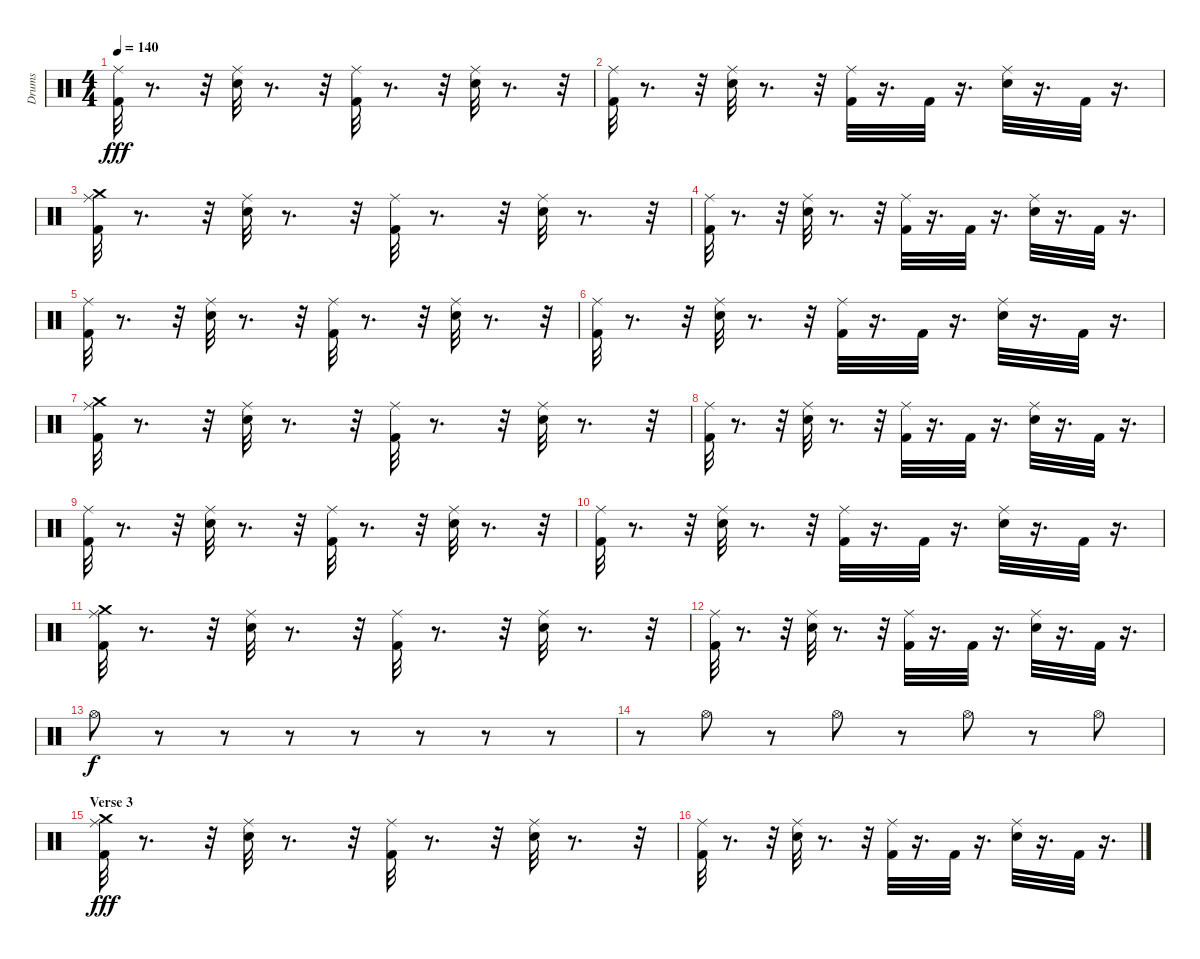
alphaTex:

\track ("Drums" "Drums") {instrument percussion}
\staff {score}
\articulation defaults
\ts (4 4)
\tempo 140
\clef neutral
\ks c
("Kick (hit) 2" "Ride (middle)").32{dy fff} r.8{d} r.32 ("Ride (middle)" "Snare (hit) 2").32 r.8{d} r.32 ("Kick (hit) 2" "Ride (middle)").32 r.8{d} r.32 ("Ride (middle)" "Snare (hit) 2").32 r.8{d} r.32 |
("Kick (hit) 2" "Ride (middle)").32 r.8{d} r.32 ("Ride (middle)" "Snare (hit) 2").32 r.8{d} r.32 ("Kick (hit) 2" "Ride (middle)").32 r.16{d} "Kick (hit) 2".32 r.16{d} ("Ride (middle)" "Snare (hit) 2").32 r.16{d} "Kick (hit) 2".32 r.16{d} |
("Crash medium (hit)" "Kick (hit) 2" "Ride (middle)").32 r.8{d} r.32 ("Ride (middle)" "Snare (hit) 2").32 r.8{d} r.32 ("Kick (hit) 2" "Ride (middle)").32 r.8{d} r.32 ("Ride (middle)" "Snare (hit) 2").32 r.8{d} r.32 |
("Kick (hit) 2" "Ride (middle)").32 r.8{d} r.32 ("Ride (middle)" "Snare (hit) 2").32 r.8{d} r.32 ("Kick (hit) 2" "Ride (middle)").32 r.16{d} "Kick (hit) 2".32 r.16{d} ("Ride (middle)" "Snare (hit) 2").32 r.16{d} "Kick (hit) 2".32 r.16{d} |
("Kick (hit) 2" "Ride (middle)").32 r.8{d} r.32 ("Ride (middle)" "Snare (hit) 2").32 r.8{d} r.32 ("Kick (hit) 2" "Ride (middle)").32 r.8{d} r.32 ("Ride (middle)" "Snare (hit) 2").32 r.8{d} r.32 |
("Kick (hit) 2" "Ride (middle)").32 r.8{d} r.32 ("Ride (middle)" "Snare (hit) 2").32 r.8{d} r.32 ("Kick (hit) 2" "Ride (middle)").32 r.16{d} "Kick (hit) 2".32 r.16{d} ("Ride (middle)" "Snare (hit) 2").32 r.16{d} "Kick (hit) 2".32 r.16{d} |
("Crash medium (hit)" "Kick (hit) 2" "Ride (middle)").32 r.8{d} r.32 ("Ride (middle)" "Snare (hit) 2").32 r.8{d} r.32 ("Kick (hit) 2" "Ride (middle)").32 r.8{d} r.32 ("Ride (middle)" "Snare (hit) 2").32 r.8{d} r.32 |
("Kick (hit) 2" "Ride (middle)").32 r.8{d} r.32 ("Ride (middle)" "Snare (hit) 2").32 r.8{d} r.32 ("Kick (hit) 2" "Ride (middle)").32 r.16{d} "Kick (hit) 2".32 r.16{d} ("Ride (middle)" "Snare (hit) 2").32 r.16{d} "Kick (hit) 2".32 r.16{d} |
("Kick (hit) 2" "Ride (middle)").32 r.8{d} r.32 ("Ride (middle)" "Snare (hit) 2").32 r.8{d} r.32 ("Kick (hit) 2" "Ride (middle)").32 r.8{d} r.32 ("Ride (middle)" "Snare (hit) 2").32 r.8{d} r.32 |
("Kick (hit) 2" "Ride (middle)").32 r.8{d} r.32 ("Ride (middle)" "Snare (hit) 2").32 r.8{d} r.32 ("Kick (hit) 2" "Ride (middle)").32 r.16{d} "Kick (hit) 2".32 r.16{d} ("Ride (middle)" "Snare (hit) 2").32 r.16{d} "Kick (hit) 2".32 r.16{d} |
("Crash medium (hit)" "Kick (hit) 2" "Ride (middle)").32 r.8{d} r.32 ("Ride (middle)" "Snare (hit) 2").32 r.8{d} r.32 ("Kick (hit) 2" "Ride (middle)").32 r.8{d} r.32 ("Ride (middle)" "Snare (hit) 2").32 r.8{d} r.32 |
("Kick (hit) 2" "Ride (middle)").32 r.8{d} r.32 ("Ride (middle)" "Snare (hit) 2").32 r.8{d} r.32 ("Kick (hit) 2" "Ride (middle)").32 r.16{d} "Kick (hit) 2".32 r.16{d} ("Ride (middle)" "Snare (hit) 2").32 r.16{d} "Kick (hit) 2".32 r.16{d} |
"Hi-Hat (open)".8{dy f} r.8 r.8 r.8 r.8 r.8 r.8 r.8 |
r.8 "Hi-Hat (open)".8 r.8 "Hi-Hat (open)".8 r.8 "Hi-Hat (open)".8 r.8 "Hi-Hat (open)".8 |
\section ("" "Verse 3")
("Crash medium (hit)" "Kick (hit) 2" "Ride (middle)").32{dy fff} r.8{d} r.32 ("Ride (middle)" "Snare (hit) 2").32 r.8{d} r.32 ("Kick (hit) 2" "Ride (middle)").32 r.8{d} r.32 ("Ride (middle)" "Snare (hit) 2").32 r.8{d} r.32 |
("Kick (hit) 2" "Ride (middle)").32 r.8{d} r.32 ("Ride (middle)" "Snare (hit) 2").32 r.8{d} r.32 ("Kick (hit) 2" "Ride (middle)").32 r.16{d} "Kick (hit) 2".32 r.16{d} ("Ride (middle)" "Snare (hit) 2").32 r.16{d} "Kick (hit) 2".32 r.16{d}
